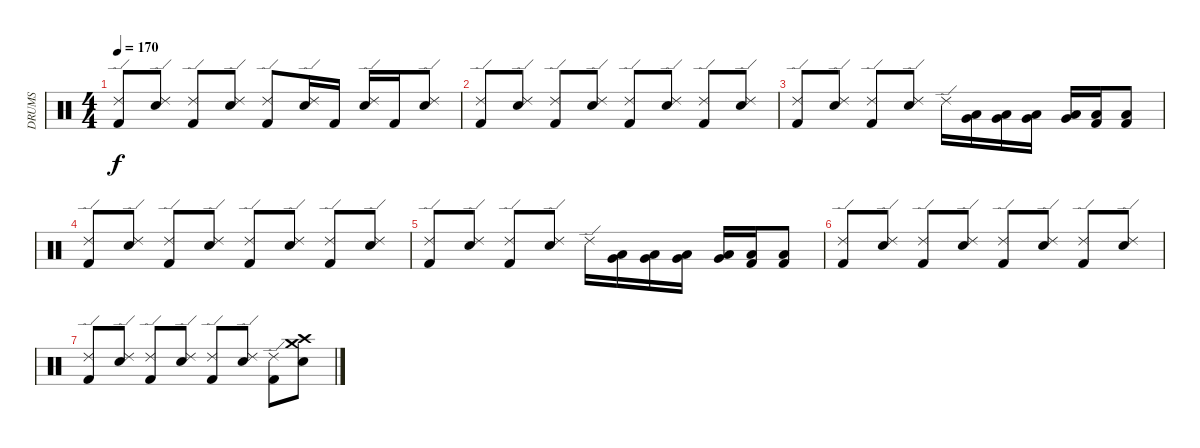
\track ("DRUMS" "DRUMS") {instrument percussion}
\staff {score}
\articulation defaults
\ts (4 4)
\tempo 170
\clef neutral
\ks c
("Kick (hit) 2" "Ride (edge) 2").8{dy f} ("Snare (hit) 2" "Ride (edge) 2").8 ("Kick (hit) 2" "Ride (edge) 2").8 ("Snare (hit) 2" "Ride (edge) 2").8 ("Kick (hit) 2" "Ride (edge) 2").8 ("Snare (hit) 2" "Ride (edge) 2").16 "Kick (hit) 2".16 ("Snare (hit) 2" "Ride (edge) 2").16 "Kick (hit) 2".16 ("Snare (hit) 2" "Ride (edge) 2").8 |
("Kick (hit) 2" "Ride (edge) 2").8 ("Snare (hit) 2" "Ride (edge) 2").8 ("Kick (hit) 2" "Ride (edge) 2").8 ("Snare (hit) 2" "Ride (edge) 2").8 ("Kick (hit) 2" "Ride (edge) 2").8 ("Snare (hit) 2" "Ride (edge) 2").8 ("Kick (hit) 2" "Ride (edge) 2").8 ("Snare (hit) 2" "Ride (edge) 2").8 |
("Kick (hit) 2" "Ride (edge) 2").8 ("Snare (hit) 2" "Ride (edge) 2").8 ("Kick (hit) 2" "Ride (edge) 2").8 ("Snare (hit) 2" "Ride (edge) 2").8 "Ride (edge) 2".16 ("Very Low Tom (hit)" "Low Tom (hit)").16 ("Very Low Tom (hit)" "Low Tom (hit)").16 ("Low Floor Tom (hit)" "Very Low Tom (hit)").16 ("Low Floor Tom (hit)" "Very Low Tom (hit)").16 ("Kick (hit) 2" "Low Floor Tom (hit)").16 ("Kick (hit) 2" "Low Floor Tom (hit)").8 |
("Kick (hit) 2" "Ride (edge) 2").8 ("Snare (hit) 2" "Ride (edge) 2").8 ("Kick (hit) 2" "Ride (edge) 2").8 ("Snare (hit) 2" "Ride (edge) 2").8 ("Kick (hit) 2" "Ride (edge) 2").8 ("Snare (hit) 2" "Ride (edge) 2").8 ("Kick (hit) 2" "Ride (edge) 2").8 ("Snare (hit) 2" "Ride (edge) 2").8 |
("Kick (hit) 2" "Ride (edge) 2").8 ("Snare (hit) 2" "Ride (edge) 2").8 ("Kick (hit) 2" "Ride (edge) 2").8 ("Snare (hit) 2" "Ride (edge) 2").8 "Ride (edge) 2".16 ("Very Low Tom (hit)" "Low Tom (hit)").16 ("Very Low Tom (hit)" "Low Tom (hit)").16 ("Low Floor Tom (hit)" "Very Low Tom (hit)").16 ("Low Floor Tom (hit)" "Very Low Tom (hit)").16 ("Kick (hit) 2" "Low Floor Tom (hit)").16 ("Kick (hit) 2" "Low Floor Tom (hit)").8 |
("Kick (hit) 2" "Ride (edge) 2").8 ("Snare (hit) 2" "Ride (edge) 2").8 ("Kick (hit) 2" "Ride (edge) 2").8 ("Snare (hit) 2" "Ride (edge) 2").8 ("Kick (hit) 2" "Ride (edge) 2").8 ("Snare (hit) 2" "Ride (edge) 2").8 ("Kick (hit) 2" "Ride (edge) 2").8 ("Snare (hit) 2" "Ride (edge) 2").8 |
("Kick (hit) 2" "Ride (edge) 2").8 ("Snare (hit) 2" "Ride (edge) 2").8 ("Kick (hit) 2" "Ride (edge) 2").8 ("Snare (hit) 2" "Ride (edge) 2").8 ("Kick (hit) 2" "Ride (edge) 2").8 ("Snare (hit) 2" "Ride (edge) 2").8 ("Kick (hit) 2" "Ride (edge) 2").8 ("Snare (hit) 2" "Crash medium (hit)" "Crash high (hit)").8
